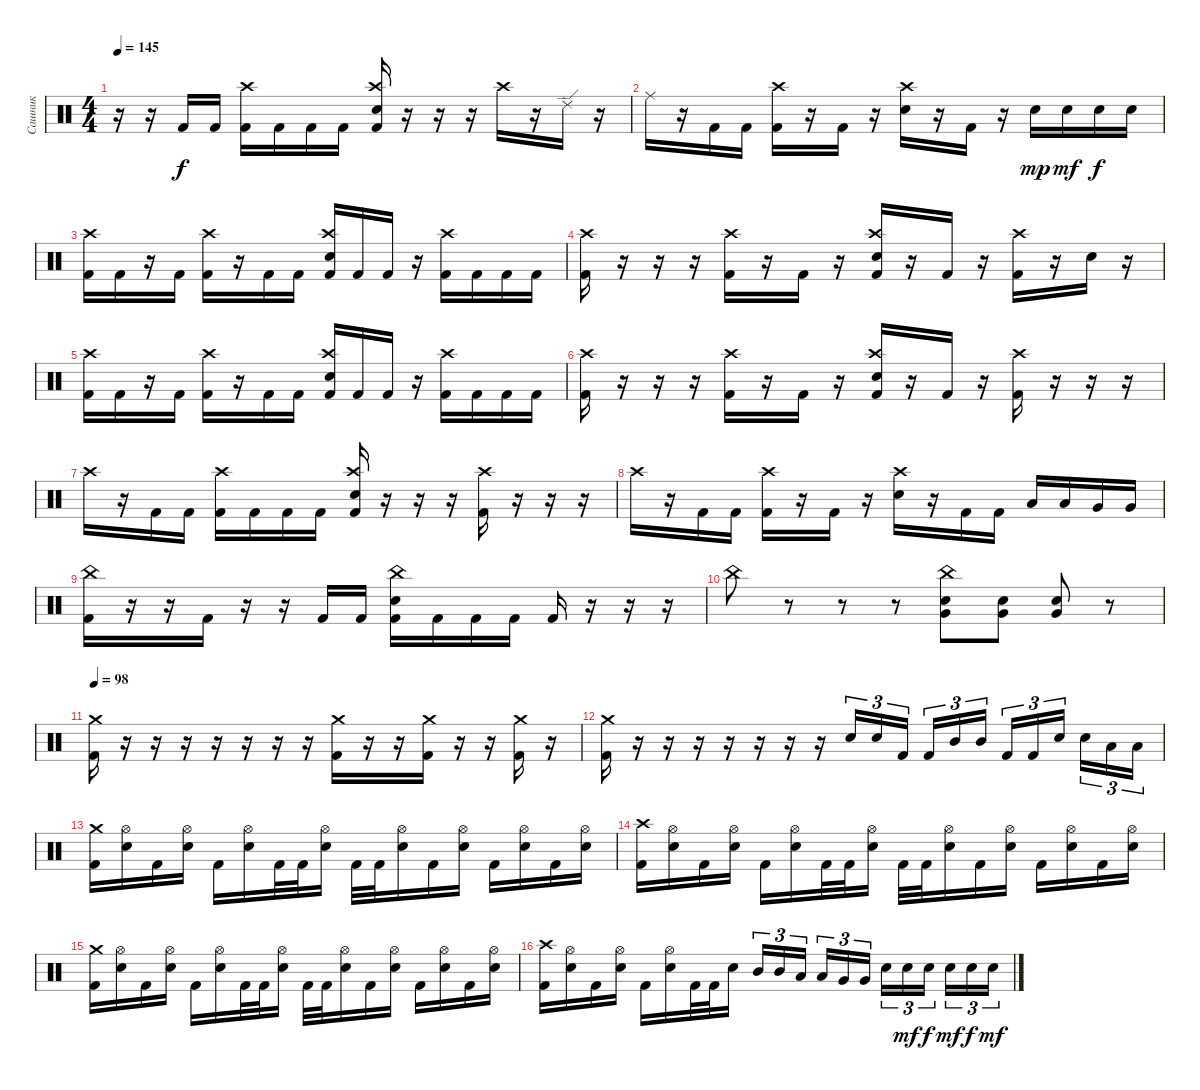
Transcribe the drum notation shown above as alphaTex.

\track ("Сашник" "Сашник") {instrument percussion}
\staff {score}
\articulation defaults
\ts (4 4)
\tempo 145
\clef neutral
\ks c
r.16{dy f} r.16 "Kick (hit) 2".16 "Kick (hit) 2".16 ("Crash high (hit)" "Kick (hit) 2").16 "Kick (hit) 2".16 "Kick (hit) 2".16 "Kick (hit) 2".16 ("Crash high (hit)" "Electric Snare (hit)" "Kick (hit) 2").16 r.16 r.16 r.16 "Crash high (hit)".16 r.16 "Ride (edge) 2".16 r.16 |
"Ride (middle)".16 r.16 "Kick (hit) 2".16 "Kick (hit) 2".16 ("Crash high (hit)" "Kick (hit) 2").16 r.16 "Kick (hit) 2".16 r.16 ("Crash high (hit)" "Electric Snare (hit)").16 r.16 "Kick (hit) 2".16 r.16 "Electric Snare (hit)".16{dy mp} "Electric Snare (hit)".16{dy mf} "Electric Snare (hit)".16{dy f} "Electric Snare (hit)".16 |
("Crash high (hit)" "Kick (hit) 2").16 "Kick (hit) 2".16 r.16 "Kick (hit) 2".16 ("Crash high (hit)" "Kick (hit) 2").16 r.16 "Kick (hit) 2".16 "Kick (hit) 2".16 ("Crash high (hit)" "Electric Snare (hit)" "Kick (hit) 2").16 "Kick (hit) 2".16 "Kick (hit) 2".16 r.16 ("Crash high (hit)" "Kick (hit) 2").16 "Kick (hit) 2".16 "Kick (hit) 2".16 "Kick (hit) 2".16 |
("Crash high (hit)" "Kick (hit) 2").16 r.16 r.16 r.16 ("Crash high (hit)" "Kick (hit) 2").16 r.16 "Kick (hit) 2".16 r.16 ("Crash high (hit)" "Electric Snare (hit)" "Kick (hit) 2").16 r.16 "Kick (hit) 2".16 r.16 ("Crash high (hit)" "Kick (hit) 2").16 r.16 "Electric Snare (hit)".16 r.16 |
("Crash high (hit)" "Kick (hit) 2").16 "Kick (hit) 2".16 r.16 "Kick (hit) 2".16 ("Crash high (hit)" "Kick (hit) 2").16 r.16 "Kick (hit) 2".16 "Kick (hit) 2".16 ("Crash high (hit)" "Electric Snare (hit)" "Kick (hit) 2").16 "Kick (hit) 2".16 "Kick (hit) 2".16 r.16 ("Crash high (hit)" "Kick (hit) 2").16 "Kick (hit) 2".16 "Kick (hit) 2".16 "Kick (hit) 2".16 |
("Crash high (hit)" "Kick (hit) 2").16 r.16 r.16 r.16 ("Crash high (hit)" "Kick (hit) 2").16 r.16 "Kick (hit) 2".16 r.16 ("Crash high (hit)" "Electric Snare (hit)" "Kick (hit) 2").16 r.16 "Kick (hit) 2".16 r.16 ("Crash high (hit)" "Kick (hit) 2").16 r.16 r.16 r.16 |
"Crash high (hit)".16 r.16 "Kick (hit) 2".16 "Kick (hit) 2".16 ("Crash high (hit)" "Kick (hit) 2").16 "Kick (hit) 2".16 "Kick (hit) 2".16 "Kick (hit) 2".16 ("Crash high (hit)" "Electric Snare (hit)" "Kick (hit) 2").16 r.16 r.16 r.16 ("Crash high (hit)" "Kick (hit) 2").16 r.16 r.16 r.16 |
"Crash high (hit)".16 r.16 "Kick (hit) 2".16 "Kick (hit) 2".16 ("Crash high (hit)" "Kick (hit) 2").16 r.16 "Kick (hit) 2".16 r.16 ("Crash high (hit)" "Electric Snare (hit)").16 r.16 "Kick (hit) 2".16 "Kick (hit) 2".16 "Low Tom (hit)".16 "Low Tom (hit)".16 "Very Low Tom (hit)".16 "Very Low Tom (hit)".16 |
("China (hit)" "Kick (hit) 2").16 r.16 r.16 "Kick (hit) 2".16 r.16 r.16 "Kick (hit) 2".16 "Kick (hit) 2".16 ("China (hit)" "Electric Snare (hit)" "Kick (hit) 2").16 "Kick (hit) 2".16 "Kick (hit) 2".16 "Kick (hit) 2".16 "Kick (hit) 2".16 r.16 r.16 r.16 |
"China (hit)".8 r.8 r.8 r.8 ("China (hit)" "Electric Snare (hit)" "Very Low Tom (hit)").8 ("Electric Snare (hit)" "Very Low Tom (hit)").8 ("Electric Snare (hit)" "Very Low Tom (hit)").8 r.8 |
\tempo 98
("Crash medium (hit)" "Kick (hit) 2").16 r.16 r.16{volume 0} r.16 r.16 r.16 r.16 r.16 ("Crash medium (hit)" "Kick (hit) 2").16{volume 13} r.16 r.16 ("Crash medium (hit)" "Kick (hit) 2").16 r.16 r.16 ("Crash medium (hit)" "Kick (hit) 2").16 r.16 |
("Crash medium (hit)" "Kick (hit) 2").16 r.16 r.16{volume 0} r.16 r.16 r.16 r.16 r.16 "Electric Snare (hit)".16{tu (3 2) volume 13} "Electric Snare (hit)".16{tu (3 2)} "Kick (hit) 2".16{tu (3 2) beam splitsecondary} "Kick (hit) 2".16{tu (3 2)} "Mid Tom (hit)".16{tu (3 2)} "Mid Tom (hit)".16{tu (3 2)} "Kick (hit) 2".16{tu (3 2)} "Kick (hit) 2".16{tu (3 2)} "Electric Snare (hit)".16{tu (3 2) beam splitsecondary} "Electric Snare (hit)".16{tu (3 2)} "Low Tom (hit)".16{tu (3 2)} "Low Tom (hit)".16{tu (3 2)} |
("Crash medium (hit)" "Kick (hit) 2").16 ("Hi-Hat (open)" "Electric Snare (hit)").16 "Kick (hit) 2".16 ("Hi-Hat (open)" "Electric Snare (hit)").16 "Kick (hit) 2".16 ("Hi-Hat (open)" "Electric Snare (hit)").16 "Kick (hit) 2".32 "Kick (hit) 2".32 ("Hi-Hat (open)" "Electric Snare (hit)").16 "Kick (hit) 2".32 "Kick (hit) 2".32 ("Hi-Hat (open)" "Electric Snare (hit)").16 "Kick (hit) 2".16 ("Hi-Hat (open)" "Electric Snare (hit)").16 "Kick (hit) 2".16 ("Hi-Hat (open)" "Electric Snare (hit)").16 "Kick (hit) 2".16 ("Hi-Hat (open)" "Electric Snare (hit)").16 |
("Crash high (hit)" "Kick (hit) 2").16 ("Hi-Hat (open)" "Electric Snare (hit)").16 "Kick (hit) 2".16 ("Hi-Hat (open)" "Electric Snare (hit)").16 "Kick (hit) 2".16 ("Hi-Hat (open)" "Electric Snare (hit)").16 "Kick (hit) 2".32 "Kick (hit) 2".32 ("Hi-Hat (open)" "Electric Snare (hit)").16 "Kick (hit) 2".32 "Kick (hit) 2".32 ("Hi-Hat (open)" "Electric Snare (hit)").16 "Kick (hit) 2".16 ("Hi-Hat (open)" "Electric Snare (hit)").16 "Kick (hit) 2".16 ("Hi-Hat (open)" "Electric Snare (hit)").16 "Kick (hit) 2".16 ("Hi-Hat (open)" "Electric Snare (hit)").16 |
("Crash medium (hit)" "Kick (hit) 2").16 ("Hi-Hat (open)" "Electric Snare (hit)").16 "Kick (hit) 2".16 ("Hi-Hat (open)" "Electric Snare (hit)").16 "Kick (hit) 2".16 ("Hi-Hat (open)" "Electric Snare (hit)").16 "Kick (hit) 2".32 "Kick (hit) 2".32 ("Hi-Hat (open)" "Electric Snare (hit)").16 "Kick (hit) 2".32 "Kick (hit) 2".32 ("Hi-Hat (open)" "Electric Snare (hit)").16 "Kick (hit) 2".16 ("Hi-Hat (open)" "Electric Snare (hit)").16 "Kick (hit) 2".16 ("Hi-Hat (open)" "Electric Snare (hit)").16 "Kick (hit) 2".16 ("Hi-Hat (open)" "Electric Snare (hit)").16 |
("Crash high (hit)" "Kick (hit) 2").16 ("Hi-Hat (open)" "Electric Snare (hit)").16 "Kick (hit) 2".16 ("Hi-Hat (open)" "Electric Snare (hit)").16 "Kick (hit) 2".16 ("Hi-Hat (open)" "Electric Snare (hit)").16 "Kick (hit) 2".32 "Kick (hit) 2".32 "Electric Snare (hit)".16 "Mid Tom (hit)".16{tu (3 2)} "Mid Tom (hit)".16{tu (3 2)} "Low Tom (hit)".16{tu (3 2) beam splitsecondary} "Low Tom (hit)".16{tu (3 2)} "Very Low Tom (hit)".16{tu (3 2)} "Very Low Tom (hit)".16{tu (3 2)} "Electric Snare (hit)".16{tu (3 2)} "Electric Snare (hit)".16{tu (3 2) dy mf} "Electric Snare (hit)".16{tu (3 2) dy f beam splitsecondary} "Electric Snare (hit)".16{tu (3 2) dy mf} "Electric Snare (hit)".16{tu (3 2) dy f} "Electric Snare (hit)".16{tu (3 2) dy mf}
